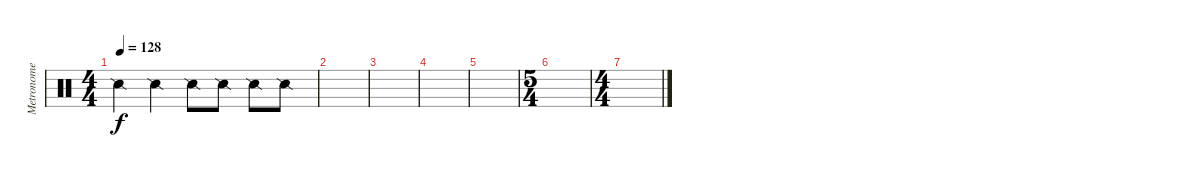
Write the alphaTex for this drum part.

\track ("Metronome" "Metronome") {instrument percussion}
\staff {score}
\articulation defaults
\ts (4 4)
\tempo 128
\clef neutral
\ks c "Snare (side stick) 2".4{dy f} "Snare (side stick) 2".4 "Snare (side stick) 2".8 "Snare (side stick) 2".8 "Snare (side stick) 2".8 "Snare (side stick) 2".8
|
|
|
|
|
\ts (5 4)
|
\ts (4 4)
